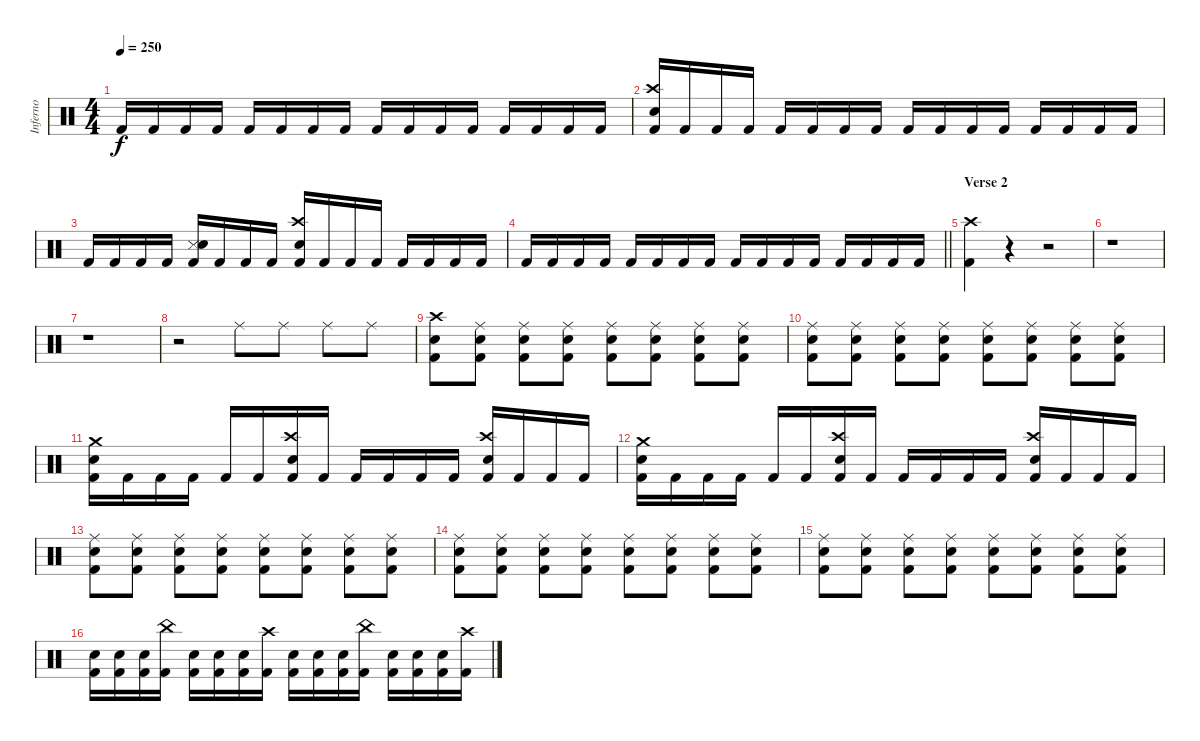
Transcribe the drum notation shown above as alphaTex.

\track ("Inferno" "Inferno") {instrument percussion}
\staff {score}
\articulation defaults
\ts (4 4)
\tempo 250
\clef neutral
\ks c "Kick (hit) 2".16{dy f} "Kick (hit) 2".16 "Kick (hit) 2".16 "Kick (hit) 2".16 "Kick (hit) 2".16 "Kick (hit) 2".16 "Kick (hit) 2".16 "Kick (hit) 2".16 "Kick (hit) 2".16 "Kick (hit) 2".16 "Kick (hit) 2".16 "Kick (hit) 2".16 "Kick (hit) 2".16 "Kick (hit) 2".16 "Kick (hit) 2".16 "Kick (hit) 2".16
|
("Crash high (hit)" "Electric Snare (hit)" "Kick (hit) 2").16 "Kick (hit) 2".16 "Kick (hit) 2".16 "Kick (hit) 2".16 "Kick (hit) 2".16 "Kick (hit) 2".16 "Kick (hit) 2".16 "Kick (hit) 2".16 "Kick (hit) 2".16 "Kick (hit) 2".16 "Kick (hit) 2".16 "Kick (hit) 2".16 "Kick (hit) 2".16 "Kick (hit) 2".16 "Kick (hit) 2".16 "Kick (hit) 2".16 |
"Kick (hit) 2".16 "Kick (hit) 2".16 "Kick (hit) 2".16 "Kick (hit) 2".16 ("Snare (side stick) 3" "Electric Snare (hit)" "Kick (hit) 2").16 "Kick (hit) 2".16 "Kick (hit) 2".16 "Kick (hit) 2".16 ("Crash high (hit)" "Electric Snare (hit)" "Kick (hit) 2").16 "Kick (hit) 2".16 "Kick (hit) 2".16 "Kick (hit) 2".16 "Kick (hit) 2".16 "Kick (hit) 2".16 "Kick (hit) 2".16 "Kick (hit) 2".16 |
\barLineRight lightlight "Kick (hit) 2".16 "Kick (hit) 2".16 "Kick (hit) 2".16 "Kick (hit) 2".16 "Kick (hit) 2".16 "Kick (hit) 2".16 "Kick (hit) 2".16 "Kick (hit) 2".16 "Kick (hit) 2".16 "Kick (hit) 2".16 "Kick (hit) 2".16 "Kick (hit) 2".16 "Kick (hit) 2".16 "Kick (hit) 2".16 "Kick (hit) 2".16 "Kick (hit) 2".16
|
\section ("" "Verse 2")
("Crash high (hit)" "Kick (hit) 2").4 r.4 r.2 |
r.1 |
r.1 |
r.2 "Ride (middle)".8 "Ride (middle)".8 "Ride (middle)".8 "Ride (middle)".8 |
("Crash high (hit)" "Electric Snare (hit)" "Kick (hit) 2").8 ("Ride (middle)" "Electric Snare (hit)" "Kick (hit) 2").8 ("Ride (middle)" "Electric Snare (hit)" "Kick (hit) 2").8 ("Ride (middle)" "Electric Snare (hit)" "Kick (hit) 2").8 ("Ride (middle)" "Electric Snare (hit)" "Kick (hit) 2").8 ("Ride (middle)" "Electric Snare (hit)" "Kick (hit) 2").8 ("Ride (middle)" "Electric Snare (hit)" "Kick (hit) 2").8 ("Ride (middle)" "Electric Snare (hit)" "Kick (hit) 2").8 |
("Ride (middle)" "Electric Snare (hit)" "Kick (hit) 2").8 ("Ride (middle)" "Electric Snare (hit)" "Kick (hit) 2").8 ("Ride (middle)" "Electric Snare (hit)" "Kick (hit) 2").8 ("Ride (middle)" "Electric Snare (hit)" "Kick (hit) 2").8 ("Ride (middle)" "Electric Snare (hit)" "Kick (hit) 2").8 ("Ride (middle)" "Electric Snare (hit)" "Kick (hit) 2").8 ("Ride (middle)" "Electric Snare (hit)" "Kick (hit) 2").8 ("Ride (middle)" "Electric Snare (hit)" "Kick (hit) 2").8 |
("Crash medium (hit)" "Electric Snare (hit)" "Kick (hit) 2").16 "Kick (hit) 2".16 "Kick (hit) 2".16 "Kick (hit) 2".16 "Kick (hit) 2".16 "Kick (hit) 2".16 ("Crash high (hit)" "Electric Snare (hit)" "Kick (hit) 2").16 "Kick (hit) 2".16 "Kick (hit) 2".16 "Kick (hit) 2".16 "Kick (hit) 2".16 "Kick (hit) 2".16 ("Crash high (hit)" "Electric Snare (hit)" "Kick (hit) 2").16 "Kick (hit) 2".16 "Kick (hit) 2".16 "Kick (hit) 2".16 |
("Crash medium (hit)" "Electric Snare (hit)" "Kick (hit) 2").16 "Kick (hit) 2".16 "Kick (hit) 2".16 "Kick (hit) 2".16 "Kick (hit) 2".16 "Kick (hit) 2".16 ("Crash high (hit)" "Electric Snare (hit)" "Kick (hit) 2").16 "Kick (hit) 2".16 "Kick (hit) 2".16 "Kick (hit) 2".16 "Kick (hit) 2".16 "Kick (hit) 2".16 ("Crash high (hit)" "Electric Snare (hit)" "Kick (hit) 2").16 "Kick (hit) 2".16 "Kick (hit) 2".16 "Kick (hit) 2".16 |
("Ride (middle)" "Electric Snare (hit)" "Kick (hit) 2").8 ("Ride (middle)" "Electric Snare (hit)" "Kick (hit) 2").8 ("Ride (middle)" "Electric Snare (hit)" "Kick (hit) 2").8 ("Ride (middle)" "Electric Snare (hit)" "Kick (hit) 2").8 ("Ride (middle)" "Electric Snare (hit)" "Kick (hit) 2").8 ("Ride (middle)" "Electric Snare (hit)" "Kick (hit) 2").8 ("Ride (middle)" "Electric Snare (hit)" "Kick (hit) 2").8 ("Ride (middle)" "Electric Snare (hit)" "Kick (hit) 2").8 |
("Ride (middle)" "Electric Snare (hit)" "Kick (hit) 2").8 ("Ride (middle)" "Electric Snare (hit)" "Kick (hit) 2").8 ("Ride (middle)" "Electric Snare (hit)" "Kick (hit) 2").8 ("Ride (middle)" "Electric Snare (hit)" "Kick (hit) 2").8 ("Ride (middle)" "Electric Snare (hit)" "Kick (hit) 2").8 ("Ride (middle)" "Electric Snare (hit)" "Kick (hit) 2").8 ("Ride (middle)" "Electric Snare (hit)" "Kick (hit) 2").8 ("Ride (middle)" "Electric Snare (hit)" "Kick (hit) 2").8 |
("Ride (middle)" "Electric Snare (hit)" "Kick (hit) 2").8 ("Ride (middle)" "Electric Snare (hit)" "Kick (hit) 2").8 ("Ride (middle)" "Electric Snare (hit)" "Kick (hit) 2").8 ("Ride (middle)" "Electric Snare (hit)" "Kick (hit) 2").8 ("Ride (middle)" "Electric Snare (hit)" "Kick (hit) 2").8 ("Ride (middle)" "Electric Snare (hit)" "Kick (hit) 2").8 ("Ride (middle)" "Electric Snare (hit)" "Kick (hit) 2").8 ("Ride (middle)" "Electric Snare (hit)" "Kick (hit) 2").8 |
("Electric Snare (hit)" "Kick (hit) 2").16 ("Electric Snare (hit)" "Kick (hit) 2").16 ("Electric Snare (hit)" "Kick (hit) 2").16 ("China (hit)" "Kick (hit) 2").16 ("Electric Snare (hit)" "Kick (hit) 2").16 ("Electric Snare (hit)" "Kick (hit) 2").16 ("Electric Snare (hit)" "Kick (hit) 2").16 ("Crash high (hit)" "Kick (hit) 2").16 ("Electric Snare (hit)" "Kick (hit) 2").16 ("Electric Snare (hit)" "Kick (hit) 2").16 ("Electric Snare (hit)" "Kick (hit) 2").16 ("China (hit)" "Kick (hit) 2").16 ("Electric Snare (hit)" "Kick (hit) 2").16 ("Electric Snare (hit)" "Kick (hit) 2").16 ("Electric Snare (hit)" "Kick (hit) 2").16 ("Crash high (hit)" "Kick (hit) 2").16
